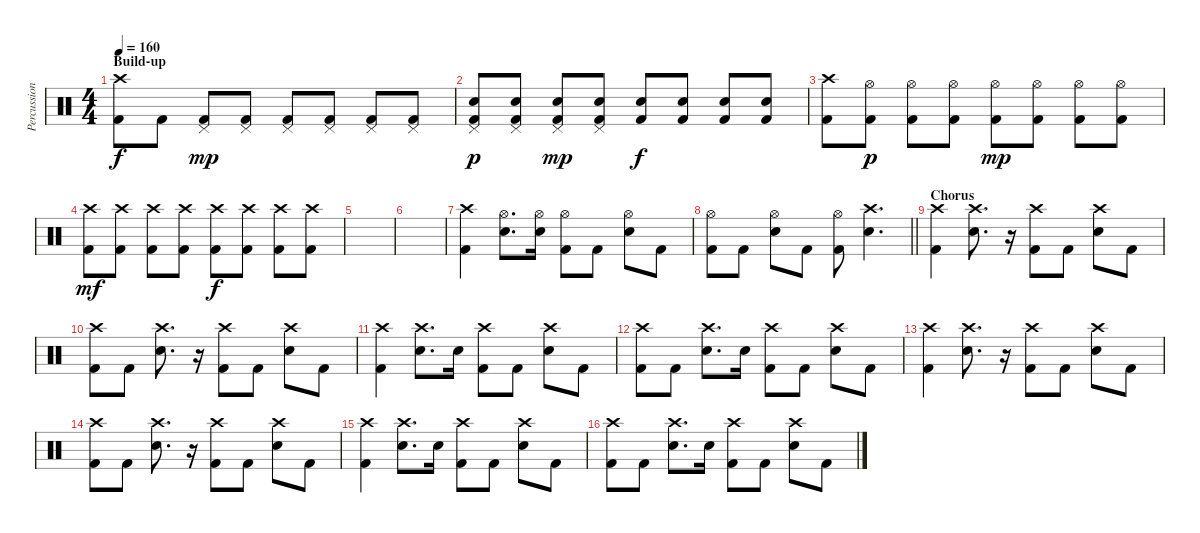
\track ("Percussion" "Percussion") {instrument percussion}
\staff {score}
\articulation defaults
\ts (4 4)
\section ("" "Build-up")
\tempo 160
\clef neutral
\ks c
("Crash high (hit)" "Kick (hit) 2").8{dy f volume 9} "Kick (hit) 2".8{volume 15} ("Pedal Hi-Hat (hit)" "Kick (hit) 2").8{dy mp} ("Pedal Hi-Hat (hit)" "Kick (hit) 2").8 ("Pedal Hi-Hat (hit)" "Kick (hit) 2").8 ("Pedal Hi-Hat (hit)" "Kick (hit) 2").8 ("Pedal Hi-Hat (hit)" "Kick (hit) 2").8 ("Pedal Hi-Hat (hit)" "Kick (hit) 2").8 |
("Pedal Hi-Hat (hit)" "Electric Snare (hit)" "Kick (hit) 2").8{dy p} ("Pedal Hi-Hat (hit)" "Electric Snare (hit)" "Kick (hit) 2").8 ("Pedal Hi-Hat (hit)" "Electric Snare (hit)" "Kick (hit) 2").8{dy mp} ("Pedal Hi-Hat (hit)" "Electric Snare (hit)" "Kick (hit) 2").8 ("Electric Snare (hit)" "Kick (hit) 2").8{dy f} ("Electric Snare (hit)" "Kick (hit) 2").8 ("Electric Snare (hit)" "Kick (hit) 2").8 ("Electric Snare (hit)" "Kick (hit) 2").8 |
("Crash high (hit)" "Kick (hit) 2").8 ("Hi-Hat (open)" "Kick (hit) 2").8{dy p} ("Hi-Hat (open)" "Kick (hit) 2").8 ("Hi-Hat (open)" "Kick (hit) 2").8 ("Hi-Hat (open)" "Kick (hit) 2").8{dy mp} ("Hi-Hat (open)" "Kick (hit) 2").8 ("Hi-Hat (open)" "Kick (hit) 2").8 ("Hi-Hat (open)" "Kick (hit) 2").8 |
("Crash high (hit)" "Kick (hit) 2").8{dy mf} ("Crash high (hit)" "Kick (hit) 2").8 ("Crash high (hit)" "Kick (hit) 2").8 ("Crash high (hit)" "Kick (hit) 2").8 ("Crash high (hit)" "Kick (hit) 2").8{dy f} ("Crash high (hit)" "Kick (hit) 2").8 ("Crash high (hit)" "Kick (hit) 2").8 ("Crash high (hit)" "Kick (hit) 2").8 |
|
|
("Crash high (hit)" "Kick (hit) 2").4 ("Hi-Hat (open)" "Electric Snare (hit)").8{d} ("Hi-Hat (open)" "Electric Snare (hit)").16 ("Hi-Hat (open)" "Kick (hit) 2").8 "Kick (hit) 2".8 ("Hi-Hat (open)" "Electric Snare (hit)").8 "Kick (hit) 2".8 |
\barLineRight lightlight
("Hi-Hat (open)" "Kick (hit) 2").8 "Kick (hit) 2".8 ("Hi-Hat (open)" "Electric Snare (hit)").8 "Kick (hit) 2".8 ("Hi-Hat (open)" "Kick (hit) 2").8 ("Crash high (hit)" "Electric Snare (hit)").4{d} |
\section ("" "Chorus")
("Crash high (hit)" "Kick (hit) 2").4 ("Crash high (hit)" "Electric Snare (hit)").8{d} r.16 ("Crash high (hit)" "Kick (hit) 2").8 "Kick (hit) 2".8 ("Crash high (hit)" "Electric Snare (hit)").8 "Kick (hit) 2".8 |
("Crash high (hit)" "Kick (hit) 2").8 "Kick (hit) 2".8 ("Crash high (hit)" "Electric Snare (hit)").8{d} r.16 ("Crash high (hit)" "Kick (hit) 2").8 "Kick (hit) 2".8 ("Crash high (hit)" "Electric Snare (hit)").8 "Kick (hit) 2".8 |
("Crash high (hit)" "Kick (hit) 2").4 ("Crash high (hit)" "Electric Snare (hit)").8{d} "Electric Snare (hit)".16 ("Crash high (hit)" "Kick (hit) 2").8 "Kick (hit) 2".8 ("Crash high (hit)" "Electric Snare (hit)").8 "Kick (hit) 2".8 |
("Crash high (hit)" "Kick (hit) 2").8 "Kick (hit) 2".8 ("Crash high (hit)" "Electric Snare (hit)").8{d} "Electric Snare (hit)".16 ("Crash high (hit)" "Kick (hit) 2").8 "Kick (hit) 2".8 ("Crash high (hit)" "Electric Snare (hit)").8 "Kick (hit) 2".8 |
("Crash high (hit)" "Kick (hit) 2").4 ("Crash high (hit)" "Electric Snare (hit)").8{d} r.16 ("Crash high (hit)" "Kick (hit) 2").8 "Kick (hit) 2".8 ("Crash high (hit)" "Electric Snare (hit)").8 "Kick (hit) 2".8 |
("Crash high (hit)" "Kick (hit) 2").8 "Kick (hit) 2".8 ("Crash high (hit)" "Electric Snare (hit)").8{d} r.16 ("Crash high (hit)" "Kick (hit) 2").8 "Kick (hit) 2".8 ("Crash high (hit)" "Electric Snare (hit)").8 "Kick (hit) 2".8 |
("Crash high (hit)" "Kick (hit) 2").4 ("Crash high (hit)" "Electric Snare (hit)").8{d} "Electric Snare (hit)".16 ("Crash high (hit)" "Kick (hit) 2").8 "Kick (hit) 2".8 ("Crash high (hit)" "Electric Snare (hit)").8 "Kick (hit) 2".8 |
("Crash high (hit)" "Kick (hit) 2").8 "Kick (hit) 2".8 ("Crash high (hit)" "Electric Snare (hit)").8{d} "Electric Snare (hit)".16 ("Crash high (hit)" "Kick (hit) 2").8 "Kick (hit) 2".8 ("Crash high (hit)" "Electric Snare (hit)").8 "Kick (hit) 2".8
